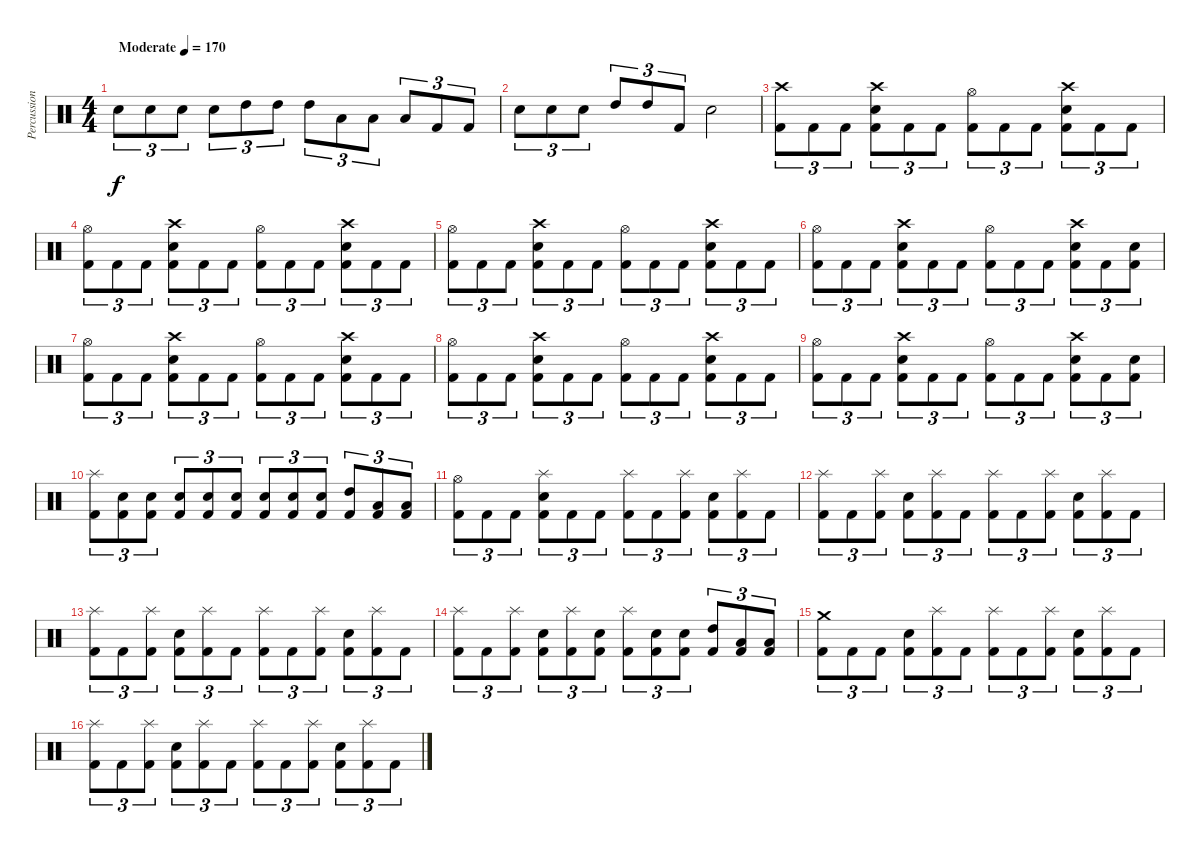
\track ("Percussion" "Percussion") {instrument percussion}
\staff {score}
\articulation defaults
\ts (4 4)
\tempo (170 "Moderate")
\clef neutral
\ks c "Electric Snare (hit)".8{tu (3 2) dy f} "Electric Snare (hit)".8{tu (3 2)} "Electric Snare (hit)".8{tu (3 2)} "Electric Snare (hit)".8{tu (3 2)} "High Tom (hit)".8{tu (3 2)} "High Tom (hit)".8{tu (3 2)} "High Tom (hit)".8{tu (3 2)} "Low Tom (hit)".8{tu (3 2)} "Low Tom (hit)".8{tu (3 2)} "Low Tom (hit)".8{tu (3 2)} "Kick (hit) 2".8{tu (3 2)} "Kick (hit) 2".8{tu (3 2)}
|
"Electric Snare (hit)".8{tu (3 2)} "Electric Snare (hit)".8{tu (3 2)} "Electric Snare (hit)".8{tu (3 2)} "High Tom (hit)".8{tu (3 2)} "High Tom (hit)".8{tu (3 2)} "Kick (hit) 2".8{tu (3 2)} "Electric Snare (hit)".2 |
("Crash high (hit)" "Kick (hit) 2").8{tu (3 2)} "Kick (hit) 2".8{tu (3 2)} "Kick (hit) 2".8{tu (3 2)} ("Crash high (hit)" "Electric Snare (hit)" "Kick (hit) 2").8{tu (3 2)} "Kick (hit) 2".8{tu (3 2)} "Kick (hit) 2".8{tu (3 2)} ("Hi-Hat (open)" "Kick (hit) 2").8{tu (3 2)} "Kick (hit) 2".8{tu (3 2)} "Kick (hit) 2".8{tu (3 2)} ("Crash high (hit)" "Electric Snare (hit)" "Kick (hit) 2").8{tu (3 2)} "Kick (hit) 2".8{tu (3 2)} "Kick (hit) 2".8{tu (3 2)} |
("Hi-Hat (open)" "Kick (hit) 2").8{tu (3 2)} "Kick (hit) 2".8{tu (3 2)} "Kick (hit) 2".8{tu (3 2)} ("Crash high (hit)" "Electric Snare (hit)" "Kick (hit) 2").8{tu (3 2)} "Kick (hit) 2".8{tu (3 2)} "Kick (hit) 2".8{tu (3 2)} ("Hi-Hat (open)" "Kick (hit) 2").8{tu (3 2)} "Kick (hit) 2".8{tu (3 2)} "Kick (hit) 2".8{tu (3 2)} ("Crash high (hit)" "Electric Snare (hit)" "Kick (hit) 2").8{tu (3 2)} "Kick (hit) 2".8{tu (3 2)} "Kick (hit) 2".8{tu (3 2)} |
("Hi-Hat (open)" "Kick (hit) 2").8{tu (3 2)} "Kick (hit) 2".8{tu (3 2)} "Kick (hit) 2".8{tu (3 2)} ("Crash high (hit)" "Electric Snare (hit)" "Kick (hit) 2").8{tu (3 2)} "Kick (hit) 2".8{tu (3 2)} "Kick (hit) 2".8{tu (3 2)} ("Hi-Hat (open)" "Kick (hit) 2").8{tu (3 2)} "Kick (hit) 2".8{tu (3 2)} "Kick (hit) 2".8{tu (3 2)} ("Crash high (hit)" "Electric Snare (hit)" "Kick (hit) 2").8{tu (3 2)} "Kick (hit) 2".8{tu (3 2)} "Kick (hit) 2".8{tu (3 2)} |
("Hi-Hat (open)" "Kick (hit) 2").8{tu (3 2)} "Kick (hit) 2".8{tu (3 2)} "Kick (hit) 2".8{tu (3 2)} ("Crash high (hit)" "Electric Snare (hit)" "Kick (hit) 2").8{tu (3 2)} "Kick (hit) 2".8{tu (3 2)} "Kick (hit) 2".8{tu (3 2)} ("Hi-Hat (open)" "Kick (hit) 2").8{tu (3 2)} "Kick (hit) 2".8{tu (3 2)} "Kick (hit) 2".8{tu (3 2)} ("Crash high (hit)" "Electric Snare (hit)" "Kick (hit) 2").8{tu (3 2)} "Kick (hit) 2".8{tu (3 2)} ("Electric Snare (hit)" "Kick (hit) 2").8{tu (3 2)} |
("Hi-Hat (open)" "Kick (hit) 2").8{tu (3 2)} "Kick (hit) 2".8{tu (3 2)} "Kick (hit) 2".8{tu (3 2)} ("Crash high (hit)" "Electric Snare (hit)" "Kick (hit) 2").8{tu (3 2)} "Kick (hit) 2".8{tu (3 2)} "Kick (hit) 2".8{tu (3 2)} ("Hi-Hat (open)" "Kick (hit) 2").8{tu (3 2)} "Kick (hit) 2".8{tu (3 2)} "Kick (hit) 2".8{tu (3 2)} ("Crash high (hit)" "Electric Snare (hit)" "Kick (hit) 2").8{tu (3 2)} "Kick (hit) 2".8{tu (3 2)} "Kick (hit) 2".8{tu (3 2)} |
("Hi-Hat (open)" "Kick (hit) 2").8{tu (3 2)} "Kick (hit) 2".8{tu (3 2)} "Kick (hit) 2".8{tu (3 2)} ("Crash high (hit)" "Electric Snare (hit)" "Kick (hit) 2").8{tu (3 2)} "Kick (hit) 2".8{tu (3 2)} "Kick (hit) 2".8{tu (3 2)} ("Hi-Hat (open)" "Kick (hit) 2").8{tu (3 2)} "Kick (hit) 2".8{tu (3 2)} "Kick (hit) 2".8{tu (3 2)} ("Crash high (hit)" "Electric Snare (hit)" "Kick (hit) 2").8{tu (3 2)} "Kick (hit) 2".8{tu (3 2)} "Kick (hit) 2".8{tu (3 2)} |
("Hi-Hat (open)" "Kick (hit) 2").8{tu (3 2)} "Kick (hit) 2".8{tu (3 2)} "Kick (hit) 2".8{tu (3 2)} ("Crash high (hit)" "Electric Snare (hit)" "Kick (hit) 2").8{tu (3 2)} "Kick (hit) 2".8{tu (3 2)} "Kick (hit) 2".8{tu (3 2)} ("Hi-Hat (open)" "Kick (hit) 2").8{tu (3 2)} "Kick (hit) 2".8{tu (3 2)} "Kick (hit) 2".8{tu (3 2)} ("Crash high (hit)" "Electric Snare (hit)" "Kick (hit) 2").8{tu (3 2)} "Kick (hit) 2".8{tu (3 2)} ("Electric Snare (hit)" "Kick (hit) 2").8{tu (3 2)} |
("Splash (hit)" "Kick (hit) 2").8{tu (3 2)} ("Electric Snare (hit)" "Kick (hit) 2").8{tu (3 2)} ("Electric Snare (hit)" "Kick (hit) 2").8{tu (3 2)} ("Electric Snare (hit)" "Kick (hit) 2").8{tu (3 2)} ("Electric Snare (hit)" "Kick (hit) 2").8{tu (3 2)} ("Electric Snare (hit)" "Kick (hit) 2").8{tu (3 2)} ("Electric Snare (hit)" "Kick (hit) 2").8{tu (3 2)} ("Electric Snare (hit)" "Kick (hit) 2").8{tu (3 2)} ("Electric Snare (hit)" "Kick (hit) 2").8{tu (3 2)} ("High Tom (hit)" "Kick (hit) 2").8{tu (3 2)} ("Low Tom (hit)" "Kick (hit) 2").8{tu (3 2)} ("Low Tom (hit)" "Kick (hit) 2").8{tu (3 2)} |
("Hi-Hat (open)" "Kick (hit) 2").8{tu (3 2)} "Kick (hit) 2".8{tu (3 2)} "Kick (hit) 2".8{tu (3 2)} ("Splash (hit)" "Electric Snare (hit)" "Kick (hit) 2").8{tu (3 2)} "Kick (hit) 2".8{tu (3 2)} "Kick (hit) 2".8{tu (3 2)} ("Splash (hit)" "Kick (hit) 2").8{tu (3 2)} "Kick (hit) 2".8{tu (3 2)} ("Splash (hit)" "Kick (hit) 2").8{tu (3 2)} ("Electric Snare (hit)" "Kick (hit) 2").8{tu (3 2)} ("Splash (hit)" "Kick (hit) 2").8{tu (3 2)} "Kick (hit) 2".8{tu (3 2)} |
("Splash (hit)" "Kick (hit) 2").8{tu (3 2)} "Kick (hit) 2".8{tu (3 2)} ("Splash (hit)" "Kick (hit) 2").8{tu (3 2)} ("Electric Snare (hit)" "Kick (hit) 2").8{tu (3 2)} ("Splash (hit)" "Kick (hit) 2").8{tu (3 2)} "Kick (hit) 2".8{tu (3 2)} ("Splash (hit)" "Kick (hit) 2").8{tu (3 2)} "Kick (hit) 2".8{tu (3 2)} ("Splash (hit)" "Kick (hit) 2").8{tu (3 2)} ("Electric Snare (hit)" "Kick (hit) 2").8{tu (3 2)} ("Splash (hit)" "Kick (hit) 2").8{tu (3 2)} "Kick (hit) 2".8{tu (3 2)} |
("Splash (hit)" "Kick (hit) 2").8{tu (3 2)} "Kick (hit) 2".8{tu (3 2)} ("Splash (hit)" "Kick (hit) 2").8{tu (3 2)} ("Electric Snare (hit)" "Kick (hit) 2").8{tu (3 2)} ("Splash (hit)" "Kick (hit) 2").8{tu (3 2)} "Kick (hit) 2".8{tu (3 2)} ("Splash (hit)" "Kick (hit) 2").8{tu (3 2)} "Kick (hit) 2".8{tu (3 2)} ("Splash (hit)" "Kick (hit) 2").8{tu (3 2)} ("Electric Snare (hit)" "Kick (hit) 2").8{tu (3 2)} ("Splash (hit)" "Kick (hit) 2").8{tu (3 2)} "Kick (hit) 2".8{tu (3 2)} |
("Splash (hit)" "Kick (hit) 2").8{tu (3 2)} "Kick (hit) 2".8{tu (3 2)} ("Splash (hit)" "Kick (hit) 2").8{tu (3 2)} ("Electric Snare (hit)" "Kick (hit) 2").8{tu (3 2)} ("Splash (hit)" "Kick (hit) 2").8{tu (3 2)} ("Electric Snare (hit)" "Kick (hit) 2").8{tu (3 2)} ("Splash (hit)" "Kick (hit) 2").8{tu (3 2)} ("Electric Snare (hit)" "Kick (hit) 2").8{tu (3 2)} ("Electric Snare (hit)" "Kick (hit) 2").8{tu (3 2)} ("High Tom (hit)" "Kick (hit) 2").8{tu (3 2)} ("Low Tom (hit)" "Kick (hit) 2").8{tu (3 2)} ("Low Tom (hit)" "Kick (hit) 2").8{tu (3 2)} |
("Crash medium (hit)" "Kick (hit) 2").8{tu (3 2)} "Kick (hit) 2".8{tu (3 2)} "Kick (hit) 2".8{tu (3 2)} ("Electric Snare (hit)" "Kick (hit) 2").8{tu (3 2)} ("Splash (hit)" "Kick (hit) 2").8{tu (3 2)} "Kick (hit) 2".8{tu (3 2)} ("Splash (hit)" "Kick (hit) 2").8{tu (3 2)} "Kick (hit) 2".8{tu (3 2)} ("Splash (hit)" "Kick (hit) 2").8{tu (3 2)} ("Electric Snare (hit)" "Kick (hit) 2").8{tu (3 2)} ("Splash (hit)" "Kick (hit) 2").8{tu (3 2)} "Kick (hit) 2".8{tu (3 2)} |
("Splash (hit)" "Kick (hit) 2").8{tu (3 2)} "Kick (hit) 2".8{tu (3 2)} ("Splash (hit)" "Kick (hit) 2").8{tu (3 2)} ("Electric Snare (hit)" "Kick (hit) 2").8{tu (3 2)} ("Splash (hit)" "Kick (hit) 2").8{tu (3 2)} "Kick (hit) 2".8{tu (3 2)} ("Splash (hit)" "Kick (hit) 2").8{tu (3 2)} "Kick (hit) 2".8{tu (3 2)} ("Splash (hit)" "Kick (hit) 2").8{tu (3 2)} ("Electric Snare (hit)" "Kick (hit) 2").8{tu (3 2)} ("Splash (hit)" "Kick (hit) 2").8{tu (3 2)} "Kick (hit) 2".8{tu (3 2)}
